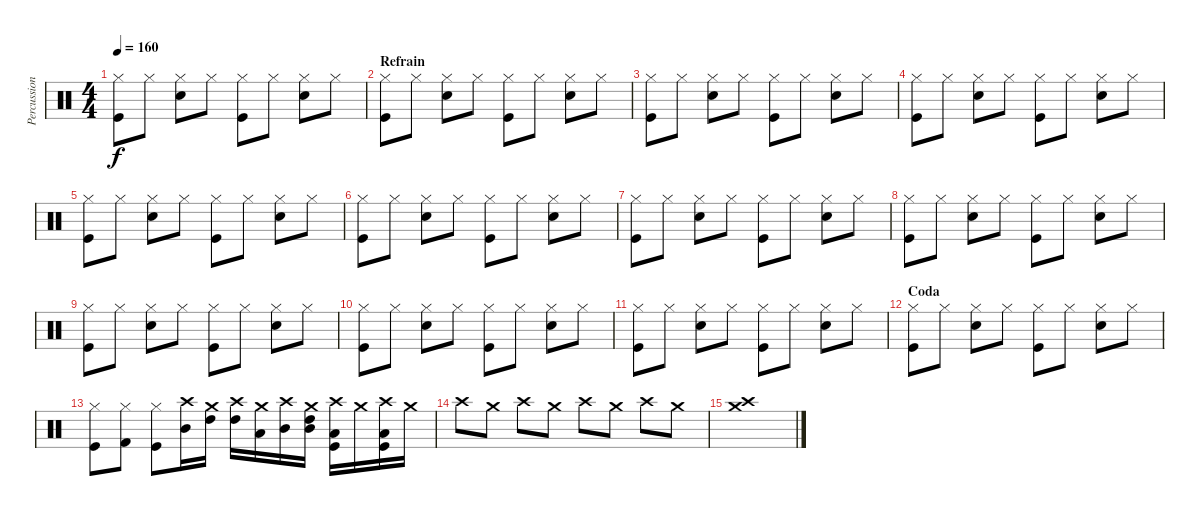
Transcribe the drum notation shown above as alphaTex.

\track ("Percussions" "Percussion") {instrument percussion}
\staff {score}
\articulation defaults
\ts (4 4)
\tempo 160
\clef neutral
\ks c
("Hi-Hat (closed)" "Kick (hit)").8{dy f} "Hi-Hat (closed)".8 ("Hi-Hat (closed)" "Snare (hit) 2").8 "Hi-Hat (closed)".8 ("Hi-Hat (closed)" "Kick (hit)").8 "Hi-Hat (closed)".8 ("Hi-Hat (closed)" "Snare (hit) 2").8 "Hi-Hat (closed)".8 |
\section ("" "Refrain")
("Hi-Hat (closed)" "Kick (hit)").8 "Hi-Hat (closed)".8 ("Hi-Hat (closed)" "Snare (hit) 2").8 "Hi-Hat (closed)".8 ("Hi-Hat (closed)" "Kick (hit)").8 "Hi-Hat (closed)".8 ("Hi-Hat (closed)" "Snare (hit) 2").8 "Hi-Hat (closed)".8 |
("Hi-Hat (closed)" "Kick (hit)").8 "Hi-Hat (closed)".8 ("Hi-Hat (closed)" "Snare (hit) 2").8 "Hi-Hat (closed)".8 ("Hi-Hat (closed)" "Kick (hit)").8 "Hi-Hat (closed)".8 ("Hi-Hat (closed)" "Snare (hit) 2").8 "Hi-Hat (closed)".8 |
("Hi-Hat (closed)" "Kick (hit)").8 "Hi-Hat (closed)".8 ("Hi-Hat (closed)" "Snare (hit) 2").8 "Hi-Hat (closed)".8 ("Hi-Hat (closed)" "Kick (hit)").8 "Hi-Hat (closed)".8 ("Hi-Hat (closed)" "Snare (hit) 2").8 "Hi-Hat (closed)".8 |
("Hi-Hat (closed)" "Kick (hit)").8 "Hi-Hat (closed)".8 ("Hi-Hat (closed)" "Snare (hit) 2").8 "Hi-Hat (closed)".8 ("Hi-Hat (closed)" "Kick (hit)").8 "Hi-Hat (closed)".8 ("Hi-Hat (closed)" "Snare (hit) 2").8 "Hi-Hat (closed)".8 |
("Hi-Hat (closed)" "Kick (hit)").8 "Hi-Hat (closed)".8 ("Hi-Hat (closed)" "Snare (hit) 2").8 "Hi-Hat (closed)".8 ("Hi-Hat (closed)" "Kick (hit)").8 "Hi-Hat (closed)".8 ("Hi-Hat (closed)" "Snare (hit) 2").8 "Hi-Hat (closed)".8 |
("Hi-Hat (closed)" "Kick (hit)").8 "Hi-Hat (closed)".8 ("Hi-Hat (closed)" "Snare (hit) 2").8 "Hi-Hat (closed)".8 ("Hi-Hat (closed)" "Kick (hit)").8 "Hi-Hat (closed)".8 ("Hi-Hat (closed)" "Snare (hit) 2").8 "Hi-Hat (closed)".8 |
("Hi-Hat (closed)" "Kick (hit)").8 "Hi-Hat (closed)".8 ("Hi-Hat (closed)" "Snare (hit) 2").8 "Hi-Hat (closed)".8 ("Hi-Hat (closed)" "Kick (hit)").8 "Hi-Hat (closed)".8 ("Hi-Hat (closed)" "Snare (hit) 2").8 "Hi-Hat (closed)".8 |
("Hi-Hat (closed)" "Kick (hit)").8 "Hi-Hat (closed)".8 ("Hi-Hat (closed)" "Snare (hit) 2").8 "Hi-Hat (closed)".8 ("Hi-Hat (closed)" "Kick (hit)").8 "Hi-Hat (closed)".8 ("Hi-Hat (closed)" "Snare (hit) 2").8 "Hi-Hat (closed)".8 |
("Hi-Hat (closed)" "Kick (hit)").8 "Hi-Hat (closed)".8 ("Hi-Hat (closed)" "Snare (hit) 2").8 "Hi-Hat (closed)".8 ("Hi-Hat (closed)" "Kick (hit)").8 "Hi-Hat (closed)".8 ("Hi-Hat (closed)" "Snare (hit) 2").8 "Hi-Hat (closed)".8 |
("Hi-Hat (closed)" "Kick (hit)").8 "Hi-Hat (closed)".8 ("Hi-Hat (closed)" "Snare (hit) 2").8 "Hi-Hat (closed)".8 ("Hi-Hat (closed)" "Kick (hit)").8 "Hi-Hat (closed)".8 ("Hi-Hat (closed)" "Snare (hit) 2").8 "Hi-Hat (closed)".8 |
\section ("" "Coda")
("Hi-Hat (closed)" "Kick (hit)").8 "Hi-Hat (closed)".8 ("Hi-Hat (closed)" "Snare (hit) 2").8 "Hi-Hat (closed)".8 ("Hi-Hat (closed)" "Kick (hit)").8 "Hi-Hat (closed)".8 ("Hi-Hat (closed)" "Snare (hit) 2").8 "Hi-Hat (closed)".8 |
("Hi-Hat (closed)" "Kick (hit)").8 ("Hi-Hat (closed)" "Kick (hit) 2").8 ("Hi-Hat (closed)" "Kick (hit)").8 ("Crash high (hit)" "Mid Tom (hit)").16 ("Crash medium (hit)" "High Tom (hit)").16 ("Crash high (hit)" "High Tom (hit)").16 ("Crash medium (hit)" "Low Tom (hit)").16 ("Crash high (hit)" "Mid Tom (hit)").16 ("Crash medium (hit)" "High Tom (hit)" "Mid Tom (hit)").16 ("Crash high (hit)" "Low Tom (hit)" "Kick (hit)").16 "Crash medium (hit)".16 ("Crash high (hit)" "Low Tom (hit)" "Kick (hit)").16 "Crash medium (hit)".16 |
"Crash high (hit)".8 "Crash medium (hit)".8 "Crash high (hit)".8 "Crash medium (hit)".8 "Crash high (hit)".8 "Crash medium (hit)".8 "Crash high (hit)".8 "Crash medium (hit)".8 |
("Crash high (hit)" "Crash medium (hit)").1
